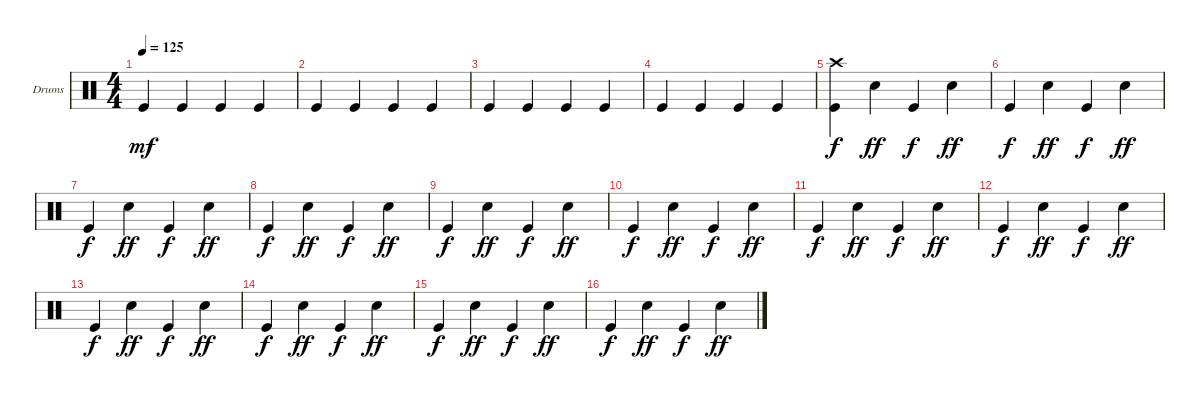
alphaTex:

\defaultSystemsLayout 4
\bracketExtendMode groupsimilarinstruments
\firstSystemTrackNameOrientation horizontal
\otherSystemsTrackNameOrientation horizontal
\track ("Drums" "Drums") {instrument percussion}
\staff {score}
\articulation defaults
\ts (4 4)
\tempo 125
\clef neutral
\ks c "Kick (hit)".4{dy mf} "Kick (hit)".4 "Kick (hit)".4 "Kick (hit)".4
|
"Kick (hit)".4 "Kick (hit)".4 "Kick (hit)".4 "Kick (hit)".4 |
"Kick (hit)".4 "Kick (hit)".4 "Kick (hit)".4 "Kick (hit)".4 |
"Kick (hit)".4 "Kick (hit)".4 "Kick (hit)".4 "Kick (hit)".4 |
("Kick (hit)" "Crash high (hit)").4{dy f} "Snare (hit) 2".4{dy ff} "Kick (hit)".4{dy f} "Snare (hit) 2".4{dy ff} |
"Kick (hit)".4{dy f} "Snare (hit) 2".4{dy ff} "Kick (hit)".4{dy f} "Snare (hit) 2".4{dy ff} |
"Kick (hit)".4{dy f} "Snare (hit) 2".4{dy ff} "Kick (hit)".4{dy f} "Snare (hit) 2".4{dy ff} |
"Kick (hit)".4{dy f} "Snare (hit) 2".4{dy ff} "Kick (hit)".4{dy f} "Snare (hit) 2".4{dy ff} |
"Kick (hit)".4{dy f} "Snare (hit) 2".4{dy ff} "Kick (hit)".4{dy f} "Snare (hit) 2".4{dy ff} |
"Kick (hit)".4{dy f} "Snare (hit) 2".4{dy ff} "Kick (hit)".4{dy f} "Snare (hit) 2".4{dy ff} |
"Kick (hit)".4{dy f} "Snare (hit) 2".4{dy ff} "Kick (hit)".4{dy f} "Snare (hit) 2".4{dy ff} |
"Kick (hit)".4{dy f} "Snare (hit) 2".4{dy ff} "Kick (hit)".4{dy f} "Snare (hit) 2".4{dy ff} |
"Kick (hit)".4{dy f} "Snare (hit) 2".4{dy ff} "Kick (hit)".4{dy f} "Snare (hit) 2".4{dy ff} |
"Kick (hit)".4{dy f} "Snare (hit) 2".4{dy ff} "Kick (hit)".4{dy f} "Snare (hit) 2".4{dy ff} |
"Kick (hit)".4{dy f} "Snare (hit) 2".4{dy ff} "Kick (hit)".4{dy f} "Snare (hit) 2".4{dy ff} |
"Kick (hit)".4{dy f} "Snare (hit) 2".4{dy ff} "Kick (hit)".4{dy f} "Snare (hit) 2".4{dy ff}
